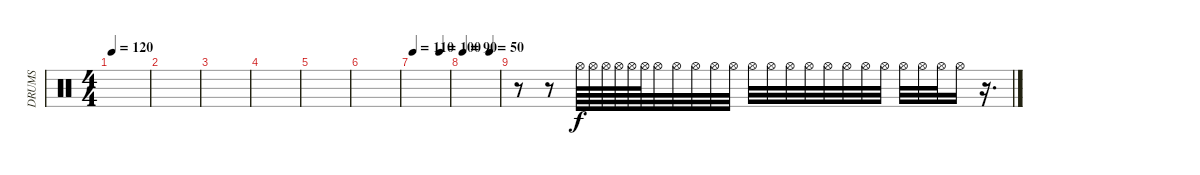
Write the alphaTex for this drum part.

\track ("DRUMS" "DRUMS") {instrument percussion}
\staff {score}
\articulation defaults
\ts (4 4)
\tempo 120
\clef neutral
\ks c
|
|
|
|
|
|
\tempo 110
\tempo (100 0.75)
|
\tempo 90
\tempo (50 0.75)
|
r.8 r.8 "Hi-Hat (open)".64 "Hi-Hat (open)".64 "Hi-Hat (open)".64 "Hi-Hat (open)".64 "Hi-Hat (open)".64 "Hi-Hat (open)".64 "Hi-Hat (open)".32 "Hi-Hat (open)".32 "Hi-Hat (open)".32 "Hi-Hat (open)".32 "Hi-Hat (open)".32 "Hi-Hat (open)".32 "Hi-Hat (open)".32 "Hi-Hat (open)".32 "Hi-Hat (open)".32 "Hi-Hat (open)".32 "Hi-Hat (open)".32 "Hi-Hat (open)".32 "Hi-Hat (open)".32 "Hi-Hat (open)".32 "Hi-Hat (open)".32 "Hi-Hat (open)".32 "Hi-Hat (open)".16 r.16{d}
